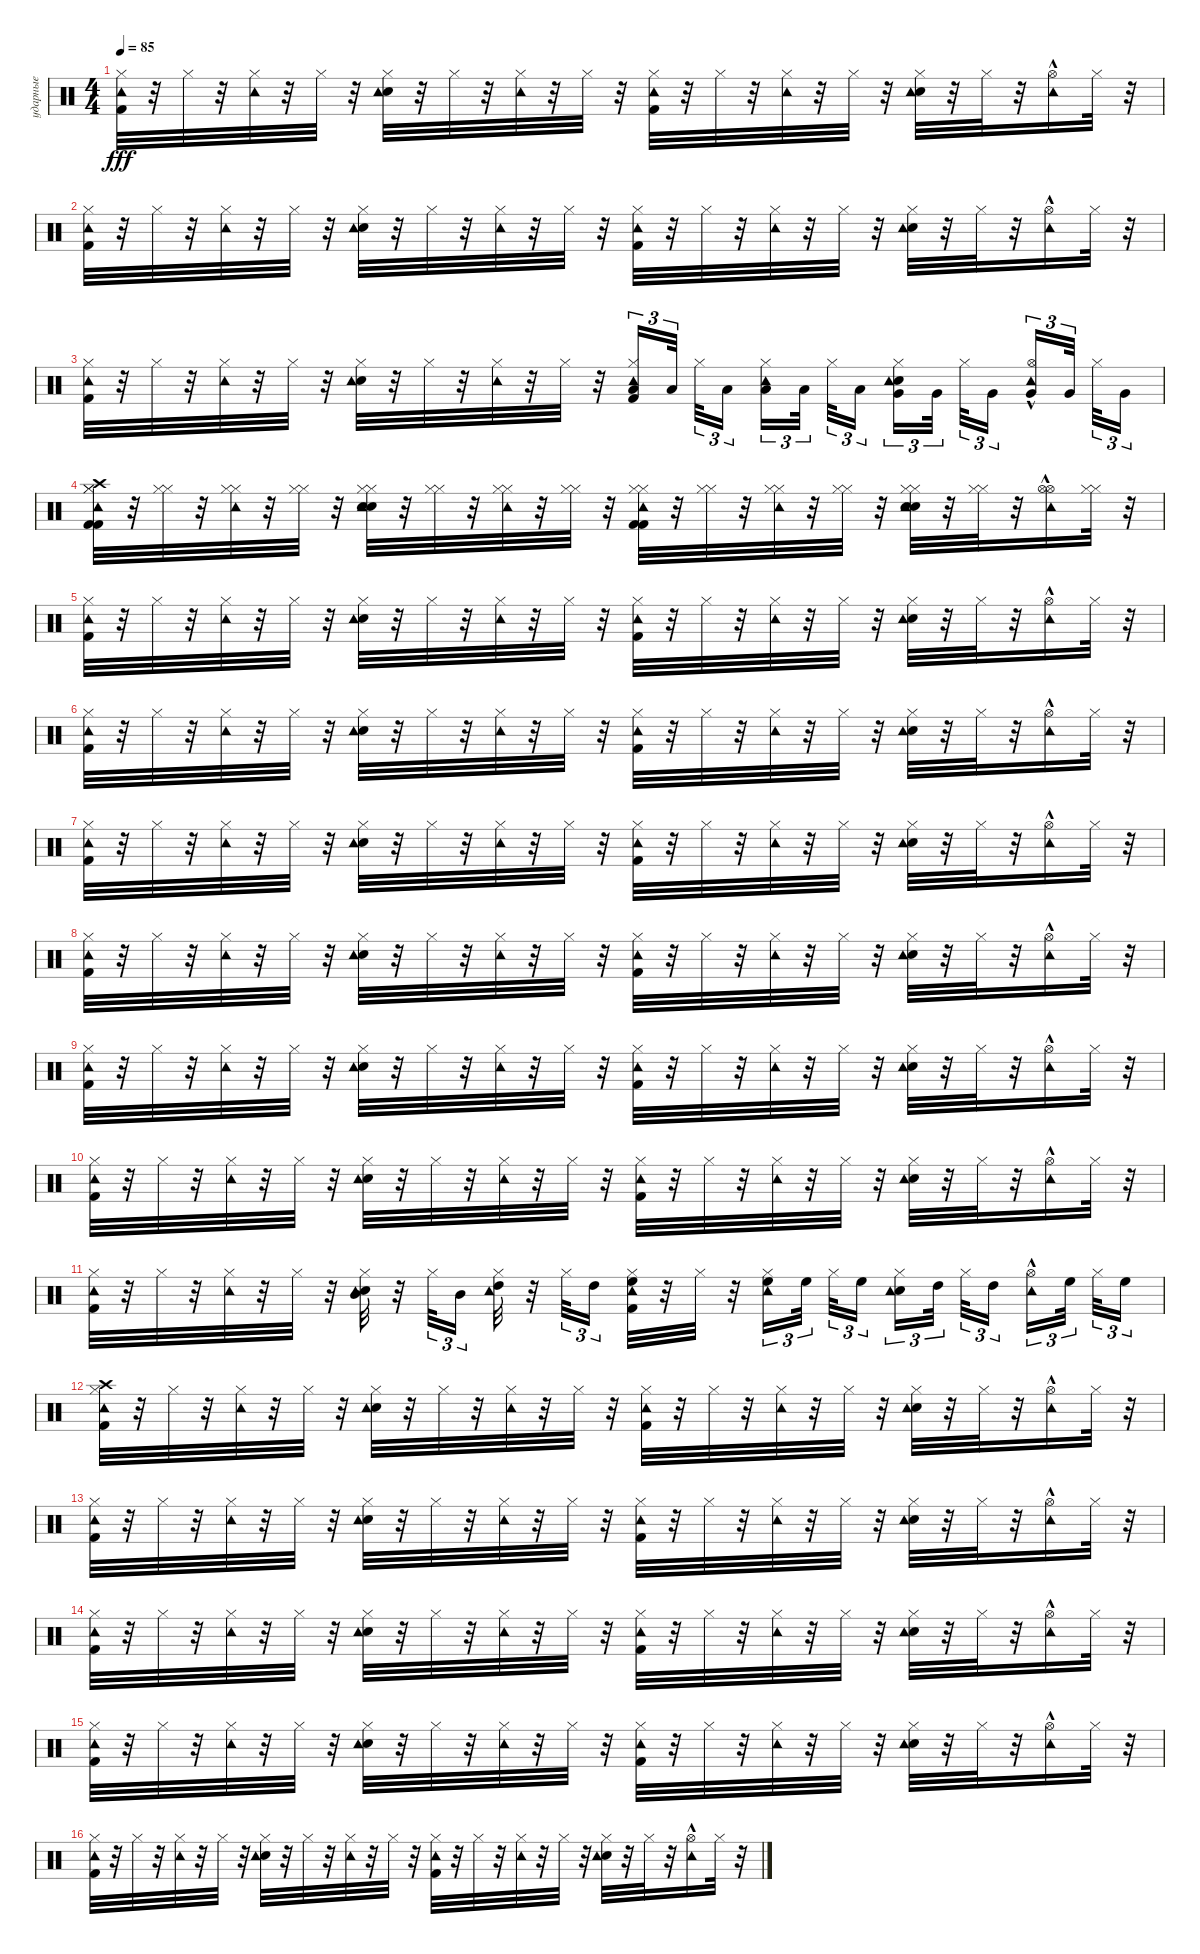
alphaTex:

\track ("ударные" "ударные") {instrument percussion}
\staff {score}
\articulation defaults
\ts (4 4)
\tempo 85
\clef neutral
\ks c
("Kick (hit) 2" "Hi-Hat (closed)" "Tambourine (hit)").32{dy fff} r.32 "Hi-Hat (closed)".32 r.32 ("Hi-Hat (closed)" "Tambourine (hit)").32 r.32 "Hi-Hat (closed)".32 r.32 ("Hi-Hat (closed)" "Electric Snare (hit)" "Tambourine (hit)").32 r.32 "Hi-Hat (closed)".32 r.32 ("Hi-Hat (closed)" "Tambourine (hit)").32 r.32 "Hi-Hat (closed)".32 r.32 ("Hi-Hat (closed)" "Kick (hit) 2" "Tambourine (hit)").32 r.32 "Hi-Hat (closed)".32 r.32 ("Hi-Hat (closed)" "Tambourine (hit)").32 r.32 "Hi-Hat (closed)".32 r.32 ("Hi-Hat (closed)" "Electric Snare (hit)" "Tambourine (hit)").32 r.32 "Hi-Hat (closed)".32 r.32 ("Hi-Hat (open)"{hac} "Tambourine (hit)").16 "Hi-Hat (closed)".32 r.32 |
("Kick (hit) 2" "Hi-Hat (closed)" "Tambourine (hit)").32 r.32 "Hi-Hat (closed)".32 r.32 ("Hi-Hat (closed)" "Tambourine (hit)").32 r.32 "Hi-Hat (closed)".32 r.32 ("Hi-Hat (closed)" "Electric Snare (hit)" "Tambourine (hit)").32 r.32 "Hi-Hat (closed)".32 r.32 ("Hi-Hat (closed)" "Tambourine (hit)").32 r.32 "Hi-Hat (closed)".32 r.32 ("Hi-Hat (closed)" "Kick (hit) 2" "Tambourine (hit)").32 r.32 "Hi-Hat (closed)".32 r.32 ("Hi-Hat (closed)" "Tambourine (hit)").32 r.32 "Hi-Hat (closed)".32 r.32 ("Hi-Hat (closed)" "Electric Snare (hit)" "Tambourine (hit)").32 r.32 "Hi-Hat (closed)".32 r.32 ("Hi-Hat (open)"{hac} "Tambourine (hit)").16 "Hi-Hat (closed)".32 r.32 |
("Kick (hit) 2" "Hi-Hat (closed)" "Tambourine (hit)").32 r.32 "Hi-Hat (closed)".32 r.32 ("Hi-Hat (closed)" "Tambourine (hit)").32 r.32 "Hi-Hat (closed)".32 r.32 ("Hi-Hat (closed)" "Electric Snare (hit)" "Tambourine (hit)").32 r.32 "Hi-Hat (closed)".32 r.32 ("Hi-Hat (closed)" "Tambourine (hit)").32 r.32 "Hi-Hat (closed)".32 r.32 ("Low Tom (hit)" "Hi-Hat (closed)" "Kick (hit) 2" "Tambourine (hit)").16{tu (3 2)} "Low Tom (hit)".32{tu (3 2)} "Hi-Hat (closed)".32{tu (3 2)} "Low Tom (hit)".16{tu (3 2)} ("Low Tom (hit)" "Hi-Hat (closed)" "Tambourine (hit)").16{tu (3 2)} "Low Tom (hit)".32{tu (3 2)} "Hi-Hat (closed)".32{tu (3 2)} "Low Tom (hit)".16{tu (3 2)} ("Very Low Tom (hit)" "Hi-Hat (closed)" "Electric Snare (hit)" "Tambourine (hit)").16{tu (3 2)} "Very Low Tom (hit)".32{tu (3 2)} "Hi-Hat (closed)".32{tu (3 2)} "Very Low Tom (hit)".16{tu (3 2)} ("Very Low Tom (hit)" "Hi-Hat (open)"{hac} "Tambourine (hit)").16{tu (3 2)} "Very Low Tom (hit)".32{tu (3 2)} "Hi-Hat (closed)".32{tu (3 2)} "Very Low Tom (hit)".16{tu (3 2)} |
("Crash high (hit)" "Kick (hit) 2" "Hi-Hat (closed)" "Kick (hit) 2" "Hi-Hat (closed)" "Tambourine (hit)").32 r.32 ("Hi-Hat (closed)" "Hi-Hat (closed)").32 r.32 ("Hi-Hat (closed)" "Hi-Hat (closed)" "Tambourine (hit)").32 r.32 ("Hi-Hat (closed)" "Hi-Hat (closed)").32 r.32 ("Hi-Hat (closed)" "Electric Snare (hit)" "Hi-Hat (closed)" "Electric Snare (hit)" "Tambourine (hit)").32 r.32 ("Hi-Hat (closed)" "Hi-Hat (closed)").32 r.32 ("Hi-Hat (closed)" "Hi-Hat (closed)" "Tambourine (hit)").32 r.32 ("Hi-Hat (closed)" "Hi-Hat (closed)").32 r.32 ("Hi-Hat (closed)" "Kick (hit) 2" "Hi-Hat (closed)" "Kick (hit) 2" "Tambourine (hit)").32 r.32 ("Hi-Hat (closed)" "Hi-Hat (closed)").32 r.32 ("Hi-Hat (closed)" "Hi-Hat (closed)" "Tambourine (hit)").32 r.32 ("Hi-Hat (closed)" "Hi-Hat (closed)").32 r.32 ("Hi-Hat (closed)" "Electric Snare (hit)" "Hi-Hat (closed)" "Electric Snare (hit)" "Tambourine (hit)").32 r.32 ("Hi-Hat (closed)" "Hi-Hat (closed)").32 r.32 ("Hi-Hat (open)"{hac} "Hi-Hat (open)"{hac} "Tambourine (hit)").16 ("Hi-Hat (closed)" "Hi-Hat (closed)").32 r.32 |
("Kick (hit) 2" "Hi-Hat (closed)" "Tambourine (hit)").32 r.32 "Hi-Hat (closed)".32 r.32 ("Hi-Hat (closed)" "Tambourine (hit)").32 r.32 "Hi-Hat (closed)".32 r.32 ("Hi-Hat (closed)" "Electric Snare (hit)" "Tambourine (hit)").32 r.32 "Hi-Hat (closed)".32 r.32 ("Hi-Hat (closed)" "Tambourine (hit)").32 r.32 "Hi-Hat (closed)".32 r.32 ("Hi-Hat (closed)" "Kick (hit) 2" "Tambourine (hit)").32 r.32 "Hi-Hat (closed)".32 r.32 ("Hi-Hat (closed)" "Tambourine (hit)").32 r.32 "Hi-Hat (closed)".32 r.32 ("Hi-Hat (closed)" "Electric Snare (hit)" "Tambourine (hit)").32 r.32 "Hi-Hat (closed)".32 r.32 ("Hi-Hat (open)"{hac} "Tambourine (hit)").16 "Hi-Hat (closed)".32 r.32 |
("Kick (hit) 2" "Hi-Hat (closed)" "Tambourine (hit)").32 r.32 "Hi-Hat (closed)".32 r.32 ("Hi-Hat (closed)" "Tambourine (hit)").32 r.32 "Hi-Hat (closed)".32 r.32 ("Hi-Hat (closed)" "Electric Snare (hit)" "Tambourine (hit)").32 r.32 "Hi-Hat (closed)".32 r.32 ("Hi-Hat (closed)" "Tambourine (hit)").32 r.32 "Hi-Hat (closed)".32 r.32 ("Hi-Hat (closed)" "Kick (hit) 2" "Tambourine (hit)").32 r.32 "Hi-Hat (closed)".32 r.32 ("Hi-Hat (closed)" "Tambourine (hit)").32 r.32 "Hi-Hat (closed)".32 r.32 ("Hi-Hat (closed)" "Electric Snare (hit)" "Tambourine (hit)").32 r.32 "Hi-Hat (closed)".32 r.32 ("Hi-Hat (open)"{hac} "Tambourine (hit)").16 "Hi-Hat (closed)".32 r.32 |
("Kick (hit) 2" "Hi-Hat (closed)" "Tambourine (hit)").32 r.32 "Hi-Hat (closed)".32 r.32 ("Hi-Hat (closed)" "Tambourine (hit)").32 r.32 "Hi-Hat (closed)".32 r.32 ("Hi-Hat (closed)" "Electric Snare (hit)" "Tambourine (hit)").32 r.32 "Hi-Hat (closed)".32 r.32 ("Hi-Hat (closed)" "Tambourine (hit)").32 r.32 "Hi-Hat (closed)".32 r.32 ("Hi-Hat (closed)" "Kick (hit) 2" "Tambourine (hit)").32 r.32 "Hi-Hat (closed)".32 r.32 ("Hi-Hat (closed)" "Tambourine (hit)").32 r.32 "Hi-Hat (closed)".32 r.32 ("Hi-Hat (closed)" "Electric Snare (hit)" "Tambourine (hit)").32 r.32 "Hi-Hat (closed)".32 r.32 ("Hi-Hat (open)"{hac} "Tambourine (hit)").16 "Hi-Hat (closed)".32 r.32 |
("Kick (hit) 2" "Hi-Hat (closed)" "Tambourine (hit)").32 r.32 "Hi-Hat (closed)".32 r.32 ("Hi-Hat (closed)" "Tambourine (hit)").32 r.32 "Hi-Hat (closed)".32 r.32 ("Hi-Hat (closed)" "Electric Snare (hit)" "Tambourine (hit)").32 r.32 "Hi-Hat (closed)".32 r.32 ("Hi-Hat (closed)" "Tambourine (hit)").32 r.32 "Hi-Hat (closed)".32 r.32 ("Hi-Hat (closed)" "Kick (hit) 2" "Tambourine (hit)").32 r.32 "Hi-Hat (closed)".32 r.32 ("Hi-Hat (closed)" "Tambourine (hit)").32 r.32 "Hi-Hat (closed)".32 r.32 ("Hi-Hat (closed)" "Electric Snare (hit)" "Tambourine (hit)").32 r.32 "Hi-Hat (closed)".32 r.32 ("Hi-Hat (open)"{hac} "Tambourine (hit)").16 "Hi-Hat (closed)".32 r.32 |
("Kick (hit) 2" "Hi-Hat (closed)" "Tambourine (hit)").32 r.32 "Hi-Hat (closed)".32 r.32 ("Hi-Hat (closed)" "Tambourine (hit)").32 r.32 "Hi-Hat (closed)".32 r.32 ("Hi-Hat (closed)" "Electric Snare (hit)" "Tambourine (hit)").32 r.32 "Hi-Hat (closed)".32 r.32 ("Hi-Hat (closed)" "Tambourine (hit)").32 r.32 "Hi-Hat (closed)".32 r.32 ("Hi-Hat (closed)" "Kick (hit) 2" "Tambourine (hit)").32 r.32 "Hi-Hat (closed)".32 r.32 ("Hi-Hat (closed)" "Tambourine (hit)").32 r.32 "Hi-Hat (closed)".32 r.32 ("Hi-Hat (closed)" "Electric Snare (hit)" "Tambourine (hit)").32 r.32 "Hi-Hat (closed)".32 r.32 ("Hi-Hat (open)"{hac} "Tambourine (hit)").16 "Hi-Hat (closed)".32 r.32 |
("Kick (hit) 2" "Hi-Hat (closed)" "Tambourine (hit)").32 r.32 "Hi-Hat (closed)".32 r.32 ("Hi-Hat (closed)" "Tambourine (hit)").32 r.32 "Hi-Hat (closed)".32 r.32 ("Hi-Hat (closed)" "Electric Snare (hit)" "Tambourine (hit)").32 r.32 "Hi-Hat (closed)".32 r.32 ("Hi-Hat (closed)" "Tambourine (hit)").32 r.32 "Hi-Hat (closed)".32 r.32 ("Hi-Hat (closed)" "Kick (hit) 2" "Tambourine (hit)").32 r.32 "Hi-Hat (closed)".32 r.32 ("Hi-Hat (closed)" "Tambourine (hit)").32 r.32 "Hi-Hat (closed)".32 r.32 ("Hi-Hat (closed)" "Electric Snare (hit)" "Tambourine (hit)").32 r.32 "Hi-Hat (closed)".32 r.32 ("Hi-Hat (open)"{hac} "Tambourine (hit)").16 "Hi-Hat (closed)".32 r.32 |
("Kick (hit) 2" "Hi-Hat (closed)" "Tambourine (hit)").32 r.32 "Hi-Hat (closed)".32 r.32 ("Hi-Hat (closed)" "Tambourine (hit)").32 r.32 "Hi-Hat (closed)".32 r.32 ("Mid Tom (hit)" "Hi-Hat (closed)" "Electric Snare (hit)" "Tambourine (hit)").32 r.32 "Hi-Hat (closed)".32{tu (3 2)} "Mid Tom (hit)".16{tu (3 2)} ("High Tom (hit)" "Hi-Hat (closed)" "Tambourine (hit)").32 r.32 "Hi-Hat (closed)".32{tu (3 2)} "High Tom (hit)".16{tu (3 2)} ("High Floor Tom (hit)" "Hi-Hat (closed)" "Kick (hit) 2" "Tambourine (hit)").32 r.32 "Hi-Hat (closed)".32 r.32 ("High Floor Tom (hit)" "Hi-Hat (closed)" "Tambourine (hit)").16{tu (3 2)} "High Floor Tom (hit)".32{tu (3 2)} "Hi-Hat (closed)".32{tu (3 2)} "High Floor Tom (hit)".16{tu (3 2)} ("Hi-Hat (closed)" "Electric Snare (hit)" "Tambourine (hit)").16{tu (3 2)} "High Tom (hit)".32{tu (3 2)} "Hi-Hat (closed)".32{tu (3 2)} "High Tom (hit)".16{tu (3 2)} ("Hi-Hat (open)"{hac} "Tambourine (hit)").16{tu (3 2)} "High Floor Tom (hit)".32{tu (3 2)} "Hi-Hat (closed)".32{tu (3 2)} "High Floor Tom (hit)".16{tu (3 2)} |
("Crash high (hit)" "Kick (hit) 2" "Hi-Hat (closed)" "Tambourine (hit)").32 r.32 "Hi-Hat (closed)".32 r.32 ("Hi-Hat (closed)" "Tambourine (hit)").32 r.32 "Hi-Hat (closed)".32 r.32 ("Hi-Hat (closed)" "Electric Snare (hit)" "Tambourine (hit)").32 r.32 "Hi-Hat (closed)".32 r.32 ("Hi-Hat (closed)" "Tambourine (hit)").32 r.32 "Hi-Hat (closed)".32 r.32 ("Hi-Hat (closed)" "Kick (hit) 2" "Tambourine (hit)").32 r.32 "Hi-Hat (closed)".32 r.32 ("Hi-Hat (closed)" "Tambourine (hit)").32 r.32 "Hi-Hat (closed)".32 r.32 ("Hi-Hat (closed)" "Electric Snare (hit)" "Tambourine (hit)").32 r.32 "Hi-Hat (closed)".32 r.32 ("Hi-Hat (open)"{hac} "Tambourine (hit)").16 "Hi-Hat (closed)".32 r.32 |
("Kick (hit) 2" "Hi-Hat (closed)" "Tambourine (hit)").32 r.32 "Hi-Hat (closed)".32 r.32 ("Hi-Hat (closed)" "Tambourine (hit)").32 r.32 "Hi-Hat (closed)".32 r.32 ("Hi-Hat (closed)" "Electric Snare (hit)" "Tambourine (hit)").32 r.32 "Hi-Hat (closed)".32 r.32 ("Hi-Hat (closed)" "Tambourine (hit)").32 r.32 "Hi-Hat (closed)".32 r.32 ("Hi-Hat (closed)" "Kick (hit) 2" "Tambourine (hit)").32 r.32 "Hi-Hat (closed)".32 r.32 ("Hi-Hat (closed)" "Tambourine (hit)").32 r.32 "Hi-Hat (closed)".32 r.32 ("Hi-Hat (closed)" "Electric Snare (hit)" "Tambourine (hit)").32 r.32 "Hi-Hat (closed)".32 r.32 ("Hi-Hat (open)"{hac} "Tambourine (hit)").16 "Hi-Hat (closed)".32 r.32 |
("Kick (hit) 2" "Hi-Hat (closed)" "Tambourine (hit)").32 r.32 "Hi-Hat (closed)".32 r.32 ("Hi-Hat (closed)" "Tambourine (hit)").32 r.32 "Hi-Hat (closed)".32 r.32 ("Hi-Hat (closed)" "Electric Snare (hit)" "Tambourine (hit)").32 r.32 "Hi-Hat (closed)".32 r.32 ("Hi-Hat (closed)" "Tambourine (hit)").32 r.32 "Hi-Hat (closed)".32 r.32 ("Hi-Hat (closed)" "Kick (hit) 2" "Tambourine (hit)").32 r.32 "Hi-Hat (closed)".32 r.32 ("Hi-Hat (closed)" "Tambourine (hit)").32 r.32 "Hi-Hat (closed)".32 r.32 ("Hi-Hat (closed)" "Electric Snare (hit)" "Tambourine (hit)").32 r.32 "Hi-Hat (closed)".32 r.32 ("Hi-Hat (open)"{hac} "Tambourine (hit)").16 "Hi-Hat (closed)".32 r.32 |
("Kick (hit) 2" "Hi-Hat (closed)" "Tambourine (hit)").32 r.32 "Hi-Hat (closed)".32 r.32 ("Hi-Hat (closed)" "Tambourine (hit)").32 r.32 "Hi-Hat (closed)".32 r.32 ("Hi-Hat (closed)" "Electric Snare (hit)" "Tambourine (hit)").32 r.32 "Hi-Hat (closed)".32 r.32 ("Hi-Hat (closed)" "Tambourine (hit)").32 r.32 "Hi-Hat (closed)".32 r.32 ("Hi-Hat (closed)" "Kick (hit) 2" "Tambourine (hit)").32 r.32 "Hi-Hat (closed)".32 r.32 ("Hi-Hat (closed)" "Tambourine (hit)").32 r.32 "Hi-Hat (closed)".32 r.32 ("Hi-Hat (closed)" "Electric Snare (hit)" "Tambourine (hit)").32 r.32 "Hi-Hat (closed)".32 r.32 ("Hi-Hat (open)"{hac} "Tambourine (hit)").16 "Hi-Hat (closed)".32 r.32 |
("Kick (hit) 2" "Hi-Hat (closed)" "Tambourine (hit)").32 r.32 "Hi-Hat (closed)".32 r.32 ("Hi-Hat (closed)" "Tambourine (hit)").32 r.32 "Hi-Hat (closed)".32 r.32 ("Hi-Hat (closed)" "Electric Snare (hit)" "Tambourine (hit)").32 r.32 "Hi-Hat (closed)".32 r.32 ("Hi-Hat (closed)" "Tambourine (hit)").32 r.32 "Hi-Hat (closed)".32 r.32 ("Hi-Hat (closed)" "Kick (hit) 2" "Tambourine (hit)").32 r.32 "Hi-Hat (closed)".32 r.32 ("Hi-Hat (closed)" "Tambourine (hit)").32 r.32 "Hi-Hat (closed)".32 r.32 ("Hi-Hat (closed)" "Electric Snare (hit)" "Tambourine (hit)").32 r.32 "Hi-Hat (closed)".32 r.32 ("Hi-Hat (open)"{hac} "Tambourine (hit)").16 "Hi-Hat (closed)".32 r.32
